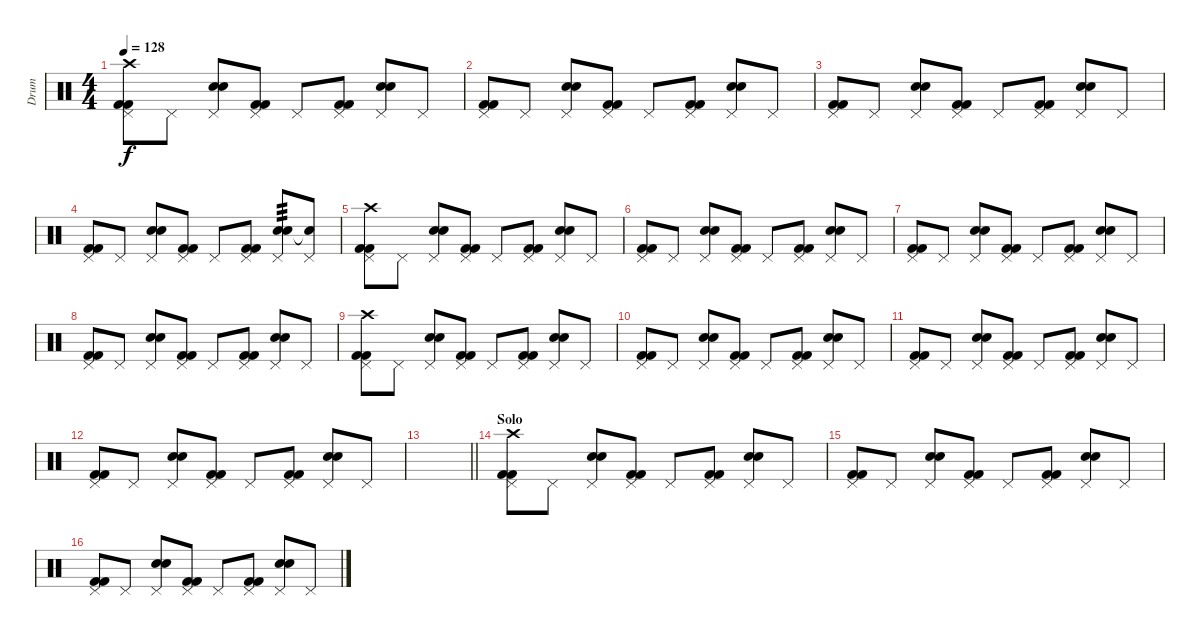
\track ("Drum" "Drum") {instrument percussion}
\staff {score}
\articulation defaults
\ts (4 4)
\tempo 128
\clef neutral
\ks c
("Kick (hit) 2" "Kick (hit) 2" "Pedal Hi-Hat (hit)" "Crash high (hit)").8{dy f} "Pedal Hi-Hat (hit)".8 ("Snare (hit) 2" "Snare (hit) 2" "Pedal Hi-Hat (hit)").8 ("Kick (hit) 2" "Kick (hit) 2" "Pedal Hi-Hat (hit)").8 "Pedal Hi-Hat (hit)".8 ("Kick (hit) 2" "Kick (hit) 2" "Pedal Hi-Hat (hit)").8 ("Snare (hit) 2" "Snare (hit) 2" "Pedal Hi-Hat (hit)").8 "Pedal Hi-Hat (hit)".8 |
("Kick (hit) 2" "Kick (hit) 2" "Pedal Hi-Hat (hit)").8 "Pedal Hi-Hat (hit)".8 ("Snare (hit) 2" "Snare (hit) 2" "Pedal Hi-Hat (hit)").8 ("Kick (hit) 2" "Kick (hit) 2" "Pedal Hi-Hat (hit)").8 "Pedal Hi-Hat (hit)".8 ("Kick (hit) 2" "Kick (hit) 2" "Pedal Hi-Hat (hit)").8 ("Snare (hit) 2" "Snare (hit) 2" "Pedal Hi-Hat (hit)").8 "Pedal Hi-Hat (hit)".8 |
("Kick (hit) 2" "Kick (hit) 2" "Pedal Hi-Hat (hit)").8 "Pedal Hi-Hat (hit)".8 ("Snare (hit) 2" "Snare (hit) 2" "Pedal Hi-Hat (hit)").8 ("Kick (hit) 2" "Kick (hit) 2" "Pedal Hi-Hat (hit)").8 "Pedal Hi-Hat (hit)".8 ("Kick (hit) 2" "Kick (hit) 2" "Pedal Hi-Hat (hit)").8 ("Snare (hit) 2" "Snare (hit) 2" "Pedal Hi-Hat (hit)").8 "Pedal Hi-Hat (hit)".8 |
("Kick (hit) 2" "Kick (hit) 2" "Pedal Hi-Hat (hit)").8 "Pedal Hi-Hat (hit)".8 ("Snare (hit) 2" "Snare (hit) 2" "Pedal Hi-Hat (hit)").8 ("Kick (hit) 2" "Kick (hit) 2" "Pedal Hi-Hat (hit)").8 "Pedal Hi-Hat (hit)".8 ("Kick (hit) 2" "Kick (hit) 2" "Pedal Hi-Hat (hit)").8 ("Snare (hit) 2" "Snare (hit) 2" "Pedal Hi-Hat (hit)").8{tp 3} ("Snare (hit)"{t} "Pedal Hi-Hat (hit)").8 |
("Kick (hit) 2" "Kick (hit) 2" "Pedal Hi-Hat (hit)" "Crash high (hit)").8 "Pedal Hi-Hat (hit)".8 ("Snare (hit) 2" "Snare (hit) 2" "Pedal Hi-Hat (hit)").8 ("Kick (hit) 2" "Kick (hit) 2" "Pedal Hi-Hat (hit)").8 "Pedal Hi-Hat (hit)".8 ("Kick (hit) 2" "Kick (hit) 2" "Pedal Hi-Hat (hit)").8 ("Snare (hit) 2" "Snare (hit) 2" "Pedal Hi-Hat (hit)").8 "Pedal Hi-Hat (hit)".8 |
("Kick (hit) 2" "Kick (hit) 2" "Pedal Hi-Hat (hit)").8 "Pedal Hi-Hat (hit)".8 ("Snare (hit) 2" "Snare (hit) 2" "Pedal Hi-Hat (hit)").8 ("Kick (hit) 2" "Kick (hit) 2" "Pedal Hi-Hat (hit)").8 "Pedal Hi-Hat (hit)".8 ("Kick (hit) 2" "Kick (hit) 2" "Pedal Hi-Hat (hit)").8 ("Snare (hit) 2" "Snare (hit) 2" "Pedal Hi-Hat (hit)").8 "Pedal Hi-Hat (hit)".8 |
("Kick (hit) 2" "Kick (hit) 2" "Pedal Hi-Hat (hit)").8 "Pedal Hi-Hat (hit)".8 ("Snare (hit) 2" "Snare (hit) 2" "Pedal Hi-Hat (hit)").8 ("Kick (hit) 2" "Kick (hit) 2" "Pedal Hi-Hat (hit)").8 "Pedal Hi-Hat (hit)".8 ("Kick (hit) 2" "Kick (hit) 2" "Pedal Hi-Hat (hit)").8 ("Snare (hit) 2" "Snare (hit) 2" "Pedal Hi-Hat (hit)").8 "Pedal Hi-Hat (hit)".8 |
("Kick (hit) 2" "Kick (hit) 2" "Pedal Hi-Hat (hit)").8 "Pedal Hi-Hat (hit)".8 ("Snare (hit) 2" "Snare (hit) 2" "Pedal Hi-Hat (hit)").8 ("Kick (hit) 2" "Kick (hit) 2" "Pedal Hi-Hat (hit)").8 "Pedal Hi-Hat (hit)".8 ("Kick (hit) 2" "Kick (hit) 2" "Pedal Hi-Hat (hit)").8 ("Snare (hit) 2" "Snare (hit) 2" "Pedal Hi-Hat (hit)").8 "Pedal Hi-Hat (hit)".8 |
("Kick (hit) 2" "Kick (hit) 2" "Pedal Hi-Hat (hit)" "Crash high (hit)").8 "Pedal Hi-Hat (hit)".8 ("Snare (hit) 2" "Snare (hit) 2" "Pedal Hi-Hat (hit)").8 ("Kick (hit) 2" "Kick (hit) 2" "Pedal Hi-Hat (hit)").8 "Pedal Hi-Hat (hit)".8 ("Kick (hit) 2" "Kick (hit) 2" "Pedal Hi-Hat (hit)").8 ("Snare (hit) 2" "Snare (hit) 2" "Pedal Hi-Hat (hit)").8 "Pedal Hi-Hat (hit)".8 |
("Kick (hit) 2" "Kick (hit) 2" "Pedal Hi-Hat (hit)").8 "Pedal Hi-Hat (hit)".8 ("Snare (hit) 2" "Snare (hit) 2" "Pedal Hi-Hat (hit)").8 ("Kick (hit) 2" "Kick (hit) 2" "Pedal Hi-Hat (hit)").8 "Pedal Hi-Hat (hit)".8 ("Kick (hit) 2" "Kick (hit) 2" "Pedal Hi-Hat (hit)").8 ("Snare (hit) 2" "Snare (hit) 2" "Pedal Hi-Hat (hit)").8 "Pedal Hi-Hat (hit)".8 |
("Kick (hit) 2" "Kick (hit) 2" "Pedal Hi-Hat (hit)").8 "Pedal Hi-Hat (hit)".8 ("Snare (hit) 2" "Snare (hit) 2" "Pedal Hi-Hat (hit)").8 ("Kick (hit) 2" "Kick (hit) 2" "Pedal Hi-Hat (hit)").8 "Pedal Hi-Hat (hit)".8 ("Kick (hit) 2" "Kick (hit) 2" "Pedal Hi-Hat (hit)").8 ("Snare (hit) 2" "Snare (hit) 2" "Pedal Hi-Hat (hit)").8 "Pedal Hi-Hat (hit)".8 |
("Kick (hit) 2" "Kick (hit) 2" "Pedal Hi-Hat (hit)").8 "Pedal Hi-Hat (hit)".8 ("Snare (hit) 2" "Snare (hit) 2" "Pedal Hi-Hat (hit)").8 ("Kick (hit) 2" "Kick (hit) 2" "Pedal Hi-Hat (hit)").8 "Pedal Hi-Hat (hit)".8 ("Kick (hit) 2" "Kick (hit) 2" "Pedal Hi-Hat (hit)").8 ("Snare (hit) 2" "Snare (hit) 2" "Pedal Hi-Hat (hit)").8 "Pedal Hi-Hat (hit)".8 |
\barLineRight lightlight
|
\section ("" "Solo")
("Kick (hit) 2" "Kick (hit) 2" "Pedal Hi-Hat (hit)" "Crash high (hit)").8 "Pedal Hi-Hat (hit)".8 ("Snare (hit) 2" "Snare (hit) 2" "Pedal Hi-Hat (hit)").8 ("Kick (hit) 2" "Kick (hit) 2" "Pedal Hi-Hat (hit)").8 "Pedal Hi-Hat (hit)".8 ("Kick (hit) 2" "Kick (hit) 2" "Pedal Hi-Hat (hit)").8 ("Snare (hit) 2" "Snare (hit) 2" "Pedal Hi-Hat (hit)").8 "Pedal Hi-Hat (hit)".8 |
("Kick (hit) 2" "Kick (hit) 2" "Pedal Hi-Hat (hit)").8 "Pedal Hi-Hat (hit)".8 ("Snare (hit) 2" "Snare (hit) 2" "Pedal Hi-Hat (hit)").8 ("Kick (hit) 2" "Kick (hit) 2" "Pedal Hi-Hat (hit)").8 "Pedal Hi-Hat (hit)".8 ("Kick (hit) 2" "Kick (hit) 2" "Pedal Hi-Hat (hit)").8 ("Snare (hit) 2" "Snare (hit) 2" "Pedal Hi-Hat (hit)").8 "Pedal Hi-Hat (hit)".8 |
("Kick (hit) 2" "Kick (hit) 2" "Pedal Hi-Hat (hit)").8 "Pedal Hi-Hat (hit)".8 ("Snare (hit) 2" "Snare (hit) 2" "Pedal Hi-Hat (hit)").8 ("Kick (hit) 2" "Kick (hit) 2" "Pedal Hi-Hat (hit)").8 "Pedal Hi-Hat (hit)".8 ("Kick (hit) 2" "Kick (hit) 2" "Pedal Hi-Hat (hit)").8 ("Snare (hit) 2" "Snare (hit) 2" "Pedal Hi-Hat (hit)").8 "Pedal Hi-Hat (hit)".8
